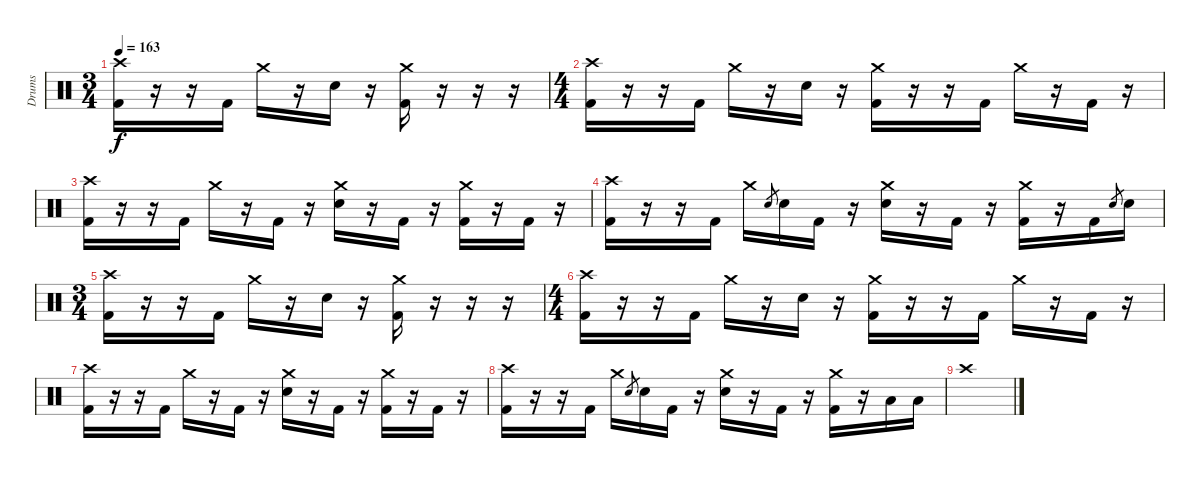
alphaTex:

\track ("Drums" "Drums") {instrument percussion}
\staff {score}
\articulation defaults
\ts (3 4)
\tempo 163
\clef neutral
\ks c
("Kick (hit) 2" "Crash high (hit)").16{dy f} r.16 r.16 "Kick (hit) 2".16 "Crash medium (hit)".16 r.16 "Electric Snare (hit)".16 r.16 ("Kick (hit) 2" "Crash medium (hit)").16 r.16 r.16 r.16 |
\ts (4 4)
("Kick (hit) 2" "Crash high (hit)").16 r.16 r.16 "Kick (hit) 2".16 "Crash medium (hit)".16 r.16 "Electric Snare (hit)".16 r.16 ("Kick (hit) 2" "Crash medium (hit)").16 r.16 r.16 "Kick (hit) 2".16 "Crash medium (hit)".16 r.16 "Kick (hit) 2".16 r.16 |
("Crash high (hit)" "Kick (hit) 2").16 r.16 r.16 "Kick (hit) 2".16 "Crash medium (hit)".16 r.16 "Kick (hit) 2".16 r.16 ("Electric Snare (hit)" "Crash medium (hit)").16 r.16 "Kick (hit) 2".16 r.16 ("Kick (hit) 2" "Crash medium (hit)").16 r.16 "Kick (hit) 2".16 r.16 |
("Crash high (hit)" "Kick (hit) 2").16 r.16 r.16 "Kick (hit) 2".16 "Crash medium (hit)".16 "Electric Snare (hit)".8{gr} "Electric Snare (hit)".16 "Kick (hit) 2".16 r.16 ("Electric Snare (hit)" "Crash medium (hit)").16 r.16 "Kick (hit) 2".16 r.16 ("Crash medium (hit)" "Kick (hit) 2").16 r.16 "Kick (hit) 2".16 "Electric Snare (hit)".8{gr} "Electric Snare (hit)".16 |
\ts (3 4)
("Kick (hit) 2" "Crash high (hit)").16 r.16 r.16 "Kick (hit) 2".16 "Crash medium (hit)".16 r.16 "Electric Snare (hit)".16 r.16 ("Kick (hit) 2" "Crash medium (hit)").16 r.16 r.16 r.16 |
\ts (4 4)
("Kick (hit) 2" "Crash high (hit)").16 r.16 r.16 "Kick (hit) 2".16 "Crash medium (hit)".16 r.16 "Electric Snare (hit)".16 r.16 ("Kick (hit) 2" "Crash medium (hit)").16 r.16 r.16 "Kick (hit) 2".16 "Crash medium (hit)".16 r.16 "Kick (hit) 2".16 r.16 |
("Crash high (hit)" "Kick (hit) 2").16 r.16 r.16 "Kick (hit) 2".16 "Crash medium (hit)".16 r.16 "Kick (hit) 2".16 r.16 ("Electric Snare (hit)" "Crash medium (hit)").16 r.16 "Kick (hit) 2".16 r.16 ("Kick (hit) 2" "Crash medium (hit)").16 r.16 "Kick (hit) 2".16 r.16 |
("Crash high (hit)" "Kick (hit) 2").16 r.16 r.16 "Kick (hit) 2".16 "Crash medium (hit)".16 "Electric Snare (hit)".8{gr} "Electric Snare (hit)".16 "Kick (hit) 2".16 r.16 ("Electric Snare (hit)" "Crash medium (hit)").16 r.16 "Kick (hit) 2".16 r.16 ("Crash medium (hit)" "Kick (hit) 2").16 r.16 "Low Tom (hit)".16 "Low Tom (hit)".16 |
"Crash high (hit)".1
